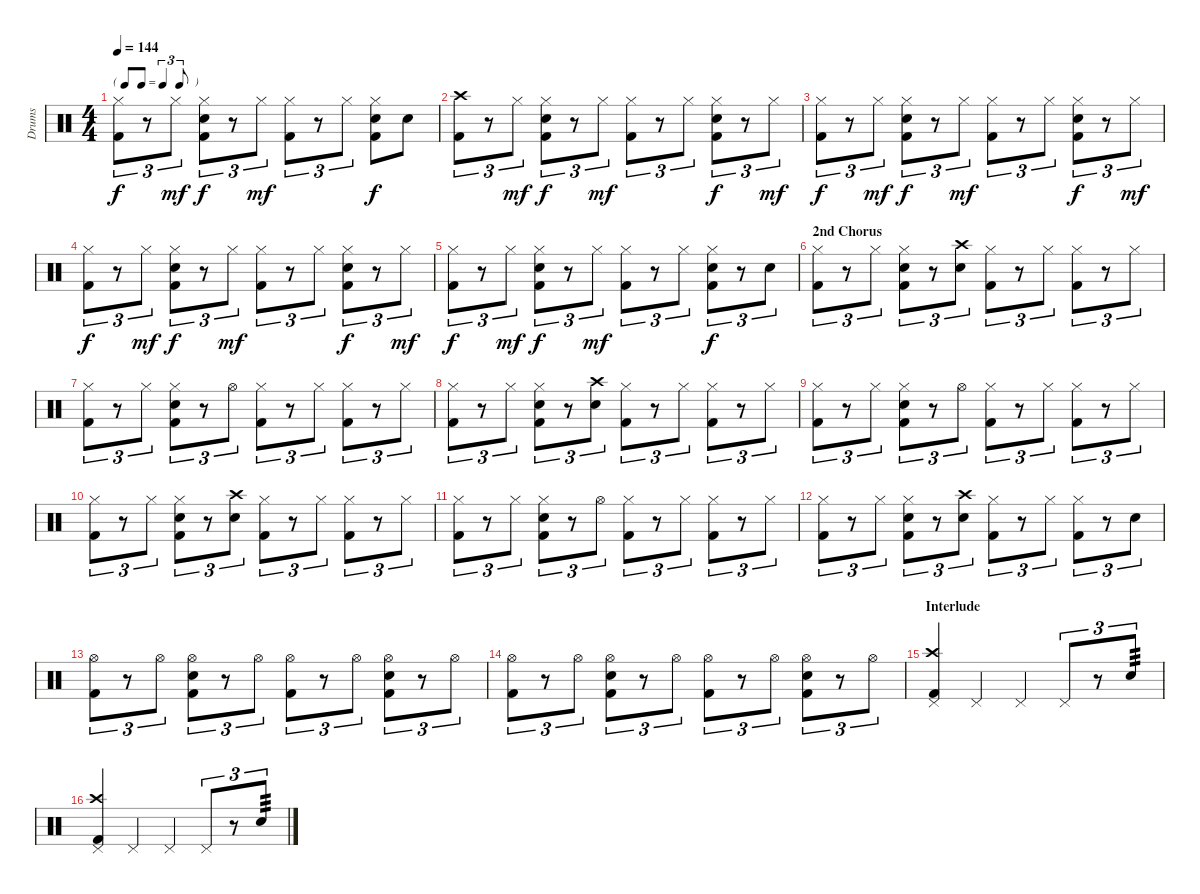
\track ("Drums" "Drums") {instrument percussion}
\staff {score}
\articulation defaults
\ts (4 4)
\tf triplet8th
\tempo 144
\clef neutral
\ks c
("Hi-Hat (closed)" "Kick (hit) 2").8{tu (3 2) dy f} r.8{tu (3 2)} "Hi-Hat (closed)".8{tu (3 2) dy mf} ("Hi-Hat (closed)" "Snare (hit) 2" "Kick (hit) 2").8{tu (3 2) dy f} r.8{tu (3 2)} "Hi-Hat (closed)".8{tu (3 2) dy mf} ("Hi-Hat (closed)" "Kick (hit) 2").8{tu (3 2)} r.8{tu (3 2)} "Hi-Hat (closed)".8{tu (3 2)} ("Hi-Hat (closed)" "Snare (hit) 2" "Kick (hit) 2").8{dy f} "Snare (hit) 2".8 |
("Crash high (hit)" "Kick (hit) 2").8{tu (3 2)} r.8{tu (3 2)} "Hi-Hat (closed)".8{tu (3 2) dy mf} ("Hi-Hat (closed)" "Snare (hit) 2" "Kick (hit) 2").8{tu (3 2) dy f} r.8{tu (3 2)} "Hi-Hat (closed)".8{tu (3 2) dy mf} ("Hi-Hat (closed)" "Kick (hit) 2").8{tu (3 2)} r.8{tu (3 2)} "Hi-Hat (closed)".8{tu (3 2)} ("Hi-Hat (closed)" "Snare (hit) 2" "Kick (hit) 2").8{tu (3 2) dy f} r.8{tu (3 2)} "Hi-Hat (closed)".8{tu (3 2) dy mf} |
("Hi-Hat (closed)" "Kick (hit) 2").8{tu (3 2) dy f} r.8{tu (3 2)} "Hi-Hat (closed)".8{tu (3 2) dy mf} ("Hi-Hat (closed)" "Snare (hit) 2" "Kick (hit) 2").8{tu (3 2) dy f} r.8{tu (3 2)} "Hi-Hat (closed)".8{tu (3 2) dy mf} ("Hi-Hat (closed)" "Kick (hit) 2").8{tu (3 2)} r.8{tu (3 2)} "Hi-Hat (closed)".8{tu (3 2)} ("Hi-Hat (closed)" "Snare (hit) 2" "Kick (hit) 2").8{tu (3 2) dy f} r.8{tu (3 2)} "Hi-Hat (closed)".8{tu (3 2) dy mf} |
("Hi-Hat (closed)" "Kick (hit) 2").8{tu (3 2) dy f} r.8{tu (3 2)} "Hi-Hat (closed)".8{tu (3 2) dy mf} ("Hi-Hat (closed)" "Snare (hit) 2" "Kick (hit) 2").8{tu (3 2) dy f} r.8{tu (3 2)} "Hi-Hat (closed)".8{tu (3 2) dy mf} ("Hi-Hat (closed)" "Kick (hit) 2").8{tu (3 2)} r.8{tu (3 2)} "Hi-Hat (closed)".8{tu (3 2)} ("Hi-Hat (closed)" "Snare (hit) 2" "Kick (hit) 2").8{tu (3 2) dy f} r.8{tu (3 2)} "Hi-Hat (closed)".8{tu (3 2) dy mf} |
("Hi-Hat (closed)" "Kick (hit) 2").8{tu (3 2) dy f} r.8{tu (3 2)} "Hi-Hat (closed)".8{tu (3 2) dy mf} ("Hi-Hat (closed)" "Snare (hit) 2" "Kick (hit) 2").8{tu (3 2) dy f} r.8{tu (3 2)} "Hi-Hat (closed)".8{tu (3 2) dy mf} ("Hi-Hat (closed)" "Kick (hit) 2").8{tu (3 2)} r.8{tu (3 2)} "Hi-Hat (closed)".8{tu (3 2)} ("Hi-Hat (closed)" "Snare (hit) 2" "Kick (hit) 2").8{tu (3 2) dy f} r.8{tu (3 2)} "Snare (hit) 2".8{tu (3 2)} |
\section ("" "2nd Chorus")
("Hi-Hat (closed)" "Kick (hit) 2").8{tu (3 2)} r.8{tu (3 2)} "Hi-Hat (closed)".8{tu (3 2)} ("Hi-Hat (closed)" "Snare (hit) 2" "Kick (hit) 2").8{tu (3 2)} r.8{tu (3 2)} ("Crash high (hit)" "Snare (hit) 2").8{tu (3 2)} ("Hi-Hat (closed)" "Kick (hit) 2").8{tu (3 2)} r.8{tu (3 2)} "Hi-Hat (closed)".8{tu (3 2)} ("Hi-Hat (closed)" "Kick (hit) 2").8{tu (3 2)} r.8{tu (3 2)} "Hi-Hat (closed)".8{tu (3 2)} |
("Hi-Hat (closed)" "Kick (hit) 2").8{tu (3 2)} r.8{tu (3 2)} "Hi-Hat (closed)".8{tu (3 2)} ("Hi-Hat (closed)" "Snare (hit) 2" "Kick (hit) 2").8{tu (3 2)} r.8{tu (3 2)} "Hi-Hat (open)".8{tu (3 2)} ("Hi-Hat (closed)" "Kick (hit) 2").8{tu (3 2)} r.8{tu (3 2)} "Hi-Hat (closed)".8{tu (3 2)} ("Hi-Hat (closed)" "Kick (hit) 2").8{tu (3 2)} r.8{tu (3 2)} "Hi-Hat (closed)".8{tu (3 2)} |
("Hi-Hat (closed)" "Kick (hit) 2").8{tu (3 2)} r.8{tu (3 2)} "Hi-Hat (closed)".8{tu (3 2)} ("Hi-Hat (closed)" "Snare (hit) 2" "Kick (hit) 2").8{tu (3 2)} r.8{tu (3 2)} ("Crash high (hit)" "Snare (hit) 2").8{tu (3 2)} ("Hi-Hat (closed)" "Kick (hit) 2").8{tu (3 2)} r.8{tu (3 2)} "Hi-Hat (closed)".8{tu (3 2)} ("Hi-Hat (closed)" "Kick (hit) 2").8{tu (3 2)} r.8{tu (3 2)} "Hi-Hat (closed)".8{tu (3 2)} |
("Hi-Hat (closed)" "Kick (hit) 2").8{tu (3 2)} r.8{tu (3 2)} "Hi-Hat (closed)".8{tu (3 2)} ("Hi-Hat (closed)" "Snare (hit) 2" "Kick (hit) 2").8{tu (3 2)} r.8{tu (3 2)} "Hi-Hat (open)".8{tu (3 2)} ("Hi-Hat (closed)" "Kick (hit) 2").8{tu (3 2)} r.8{tu (3 2)} "Hi-Hat (closed)".8{tu (3 2)} ("Hi-Hat (closed)" "Kick (hit) 2").8{tu (3 2)} r.8{tu (3 2)} "Hi-Hat (closed)".8{tu (3 2)} |
("Hi-Hat (closed)" "Kick (hit) 2").8{tu (3 2)} r.8{tu (3 2)} "Hi-Hat (closed)".8{tu (3 2)} ("Hi-Hat (closed)" "Snare (hit) 2" "Kick (hit) 2").8{tu (3 2)} r.8{tu (3 2)} ("Crash high (hit)" "Snare (hit) 2").8{tu (3 2)} ("Hi-Hat (closed)" "Kick (hit) 2").8{tu (3 2)} r.8{tu (3 2)} "Hi-Hat (closed)".8{tu (3 2)} ("Hi-Hat (closed)" "Kick (hit) 2").8{tu (3 2)} r.8{tu (3 2)} "Hi-Hat (closed)".8{tu (3 2)} |
("Hi-Hat (closed)" "Kick (hit) 2").8{tu (3 2)} r.8{tu (3 2)} "Hi-Hat (closed)".8{tu (3 2)} ("Hi-Hat (closed)" "Snare (hit) 2" "Kick (hit) 2").8{tu (3 2)} r.8{tu (3 2)} "Hi-Hat (open)".8{tu (3 2)} ("Hi-Hat (closed)" "Kick (hit) 2").8{tu (3 2)} r.8{tu (3 2)} "Hi-Hat (closed)".8{tu (3 2)} ("Hi-Hat (closed)" "Kick (hit) 2").8{tu (3 2)} r.8{tu (3 2)} "Hi-Hat (closed)".8{tu (3 2)} |
("Hi-Hat (closed)" "Kick (hit) 2").8{tu (3 2)} r.8{tu (3 2)} "Hi-Hat (closed)".8{tu (3 2)} ("Hi-Hat (closed)" "Snare (hit) 2" "Kick (hit) 2").8{tu (3 2)} r.8{tu (3 2)} ("Crash high (hit)" "Snare (hit) 2").8{tu (3 2)} ("Hi-Hat (closed)" "Kick (hit) 2").8{tu (3 2)} r.8{tu (3 2)} "Hi-Hat (closed)".8{tu (3 2)} ("Hi-Hat (closed)" "Kick (hit) 2").8{tu (3 2)} r.8{tu (3 2)} "Snare (hit) 2".8{tu (3 2)} |
("Hi-Hat (open)" "Kick (hit) 2").8{tu (3 2)} r.8{tu (3 2)} "Hi-Hat (open)".8{tu (3 2)} ("Hi-Hat (open)" "Snare (hit) 2" "Kick (hit) 2").8{tu (3 2)} r.8{tu (3 2)} "Hi-Hat (open)".8{tu (3 2)} ("Hi-Hat (open)" "Kick (hit) 2").8{tu (3 2)} r.8{tu (3 2)} "Hi-Hat (open)".8{tu (3 2)} ("Hi-Hat (open)" "Snare (hit) 2" "Kick (hit) 2").8{tu (3 2)} r.8{tu (3 2)} "Hi-Hat (open)".8{tu (3 2)} |
("Hi-Hat (open)" "Kick (hit) 2").8{tu (3 2)} r.8{tu (3 2)} "Hi-Hat (open)".8{tu (3 2)} ("Hi-Hat (open)" "Snare (hit) 2" "Kick (hit) 2").8{tu (3 2)} r.8{tu (3 2)} "Hi-Hat (open)".8{tu (3 2)} ("Hi-Hat (open)" "Kick (hit) 2").8{tu (3 2)} r.8{tu (3 2)} "Hi-Hat (open)".8{tu (3 2)} ("Hi-Hat (open)" "Snare (hit) 2" "Kick (hit) 2").8{tu (3 2)} r.8{tu (3 2)} "Hi-Hat (open)".8{tu (3 2)} |
\section ("" "Interlude")
("Crash high (hit)" "Pedal Hi-Hat (hit)" "Kick (hit) 2").4 "Pedal Hi-Hat (hit)".4 "Pedal Hi-Hat (hit)".4 "Pedal Hi-Hat (hit)".8{tu (3 2)} r.8{tu (3 2)} "Snare (hit) 2".8{tu (3 2) tp 3} |
("Crash high (hit)" "Pedal Hi-Hat (hit)" "Kick (hit) 2").4 "Pedal Hi-Hat (hit)".4 "Pedal Hi-Hat (hit)".4 "Pedal Hi-Hat (hit)".8{tu (3 2)} r.8{tu (3 2)} "Snare (hit) 2".8{tu (3 2) tp 3}
